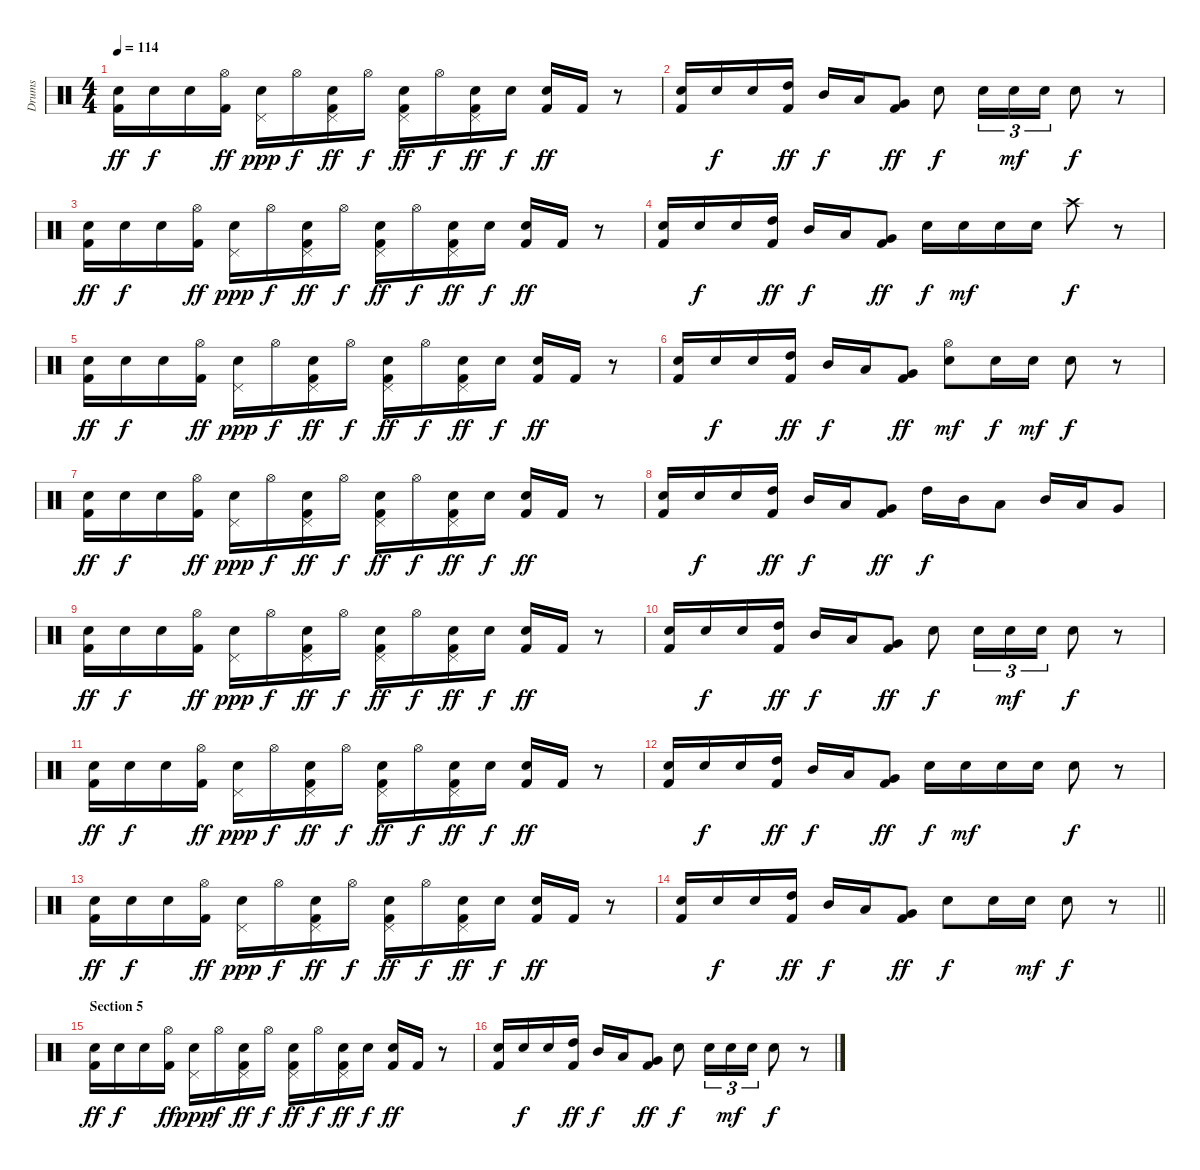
\track ("Drums" "Drums") {instrument percussion}
\staff {score}
\articulation defaults
\ts (4 4)
\tempo 114
\clef neutral
\ks c
("Snare (hit) 2" "Kick (hit) 2").16{dy ff} "Electric Snare (hit)".16{dy f} "Electric Snare (hit)".16 ("Hi-Hat (open)" "Kick (hit) 2").16{dy ff} ("Pedal Hi-Hat (hit)" "Electric Snare (hit)").16{dy ppp} "Hi-Hat (open)".16{dy f} ("Pedal Hi-Hat (hit)" "Electric Snare (hit)" "Kick (hit) 2").16{dy ff} "Hi-Hat (open)".16{dy f} ("Pedal Hi-Hat (hit)" "Electric Snare (hit)" "Kick (hit) 2").16{dy ff} "Hi-Hat (open)".16{dy f} ("Pedal Hi-Hat (hit)" "Electric Snare (hit)" "Kick (hit) 2").16{dy ff} "Snare (hit) 2".16{dy f} ("Electric Snare (hit)" "Kick (hit) 2").16{dy ff} "Kick (hit) 2".16 r.8 |
("Snare (hit) 2" "Kick (hit) 2").16 "Electric Snare (hit)".16{dy f} "Electric Snare (hit)".16 ("High Tom (hit)" "Kick (hit) 2").16{dy ff} "Mid Tom (hit)".16{dy f} "Low Tom (hit)".16 ("Very Low Tom (hit)" "Kick (hit) 2").8{dy ff} "Electric Snare (hit)".8{dy f} "Snare (hit) 2".16{tu (3 2)} "Snare (hit) 2".16{tu (3 2) dy mf} "Snare (hit) 2".16{tu (3 2)} "Electric Snare (hit)".8{dy f} r.8 |
("Snare (hit) 2" "Kick (hit) 2").16{dy ff} "Electric Snare (hit)".16{dy f} "Electric Snare (hit)".16 ("Hi-Hat (open)" "Kick (hit) 2").16{dy ff} ("Pedal Hi-Hat (hit)" "Electric Snare (hit)").16{dy ppp} "Hi-Hat (open)".16{dy f} ("Pedal Hi-Hat (hit)" "Electric Snare (hit)" "Kick (hit) 2").16{dy ff} "Hi-Hat (open)".16{dy f} ("Pedal Hi-Hat (hit)" "Electric Snare (hit)" "Kick (hit) 2").16{dy ff} "Hi-Hat (open)".16{dy f} ("Pedal Hi-Hat (hit)" "Electric Snare (hit)" "Kick (hit) 2").16{dy ff} "Snare (hit) 2".16{dy f} ("Electric Snare (hit)" "Kick (hit) 2").16{dy ff} "Kick (hit) 2".16 r.8 |
("Snare (hit) 2" "Kick (hit) 2").16 "Electric Snare (hit)".16{dy f} "Electric Snare (hit)".16 ("High Tom (hit)" "Kick (hit) 2").16{dy ff} "Mid Tom (hit)".16{dy f} "Low Tom (hit)".16 ("Very Low Tom (hit)" "Kick (hit) 2").8{dy ff} "Electric Snare (hit)".16{dy f} "Electric Snare (hit)".16{dy mf} "Electric Snare (hit)".16 "Electric Snare (hit)".16 "Crash high (hit)".8{dy f} r.8 |
("Snare (hit) 2" "Kick (hit) 2").16{dy ff} "Electric Snare (hit)".16{dy f} "Electric Snare (hit)".16 ("Hi-Hat (open)" "Kick (hit) 2").16{dy ff} ("Pedal Hi-Hat (hit)" "Electric Snare (hit)").16{dy ppp} "Hi-Hat (open)".16{dy f} ("Pedal Hi-Hat (hit)" "Electric Snare (hit)" "Kick (hit) 2").16{dy ff} "Hi-Hat (open)".16{dy f} ("Pedal Hi-Hat (hit)" "Electric Snare (hit)" "Kick (hit) 2").16{dy ff} "Hi-Hat (open)".16{dy f} ("Pedal Hi-Hat (hit)" "Electric Snare (hit)" "Kick (hit) 2").16{dy ff} "Snare (hit) 2".16{dy f} ("Electric Snare (hit)" "Kick (hit) 2").16{dy ff} "Kick (hit) 2".16 r.8 |
("Snare (hit) 2" "Kick (hit) 2").16 "Electric Snare (hit)".16{dy f} "Electric Snare (hit)".16 ("High Tom (hit)" "Kick (hit) 2").16{dy ff} "Mid Tom (hit)".16{dy f} "Low Tom (hit)".16 ("Very Low Tom (hit)" "Kick (hit) 2").8{dy ff} ("Hi-Hat (open)" "Electric Snare (hit)").8{dy mf} "Snare (hit) 2".16{dy f} "Snare (hit) 2".16{dy mf} "Electric Snare (hit)".8{dy f} r.8 |
("Snare (hit) 2" "Kick (hit) 2").16{dy ff} "Electric Snare (hit)".16{dy f} "Electric Snare (hit)".16 ("Hi-Hat (open)" "Kick (hit) 2").16{dy ff} ("Pedal Hi-Hat (hit)" "Electric Snare (hit)").16{dy ppp} "Hi-Hat (open)".16{dy f} ("Pedal Hi-Hat (hit)" "Electric Snare (hit)" "Kick (hit) 2").16{dy ff} "Hi-Hat (open)".16{dy f} ("Pedal Hi-Hat (hit)" "Electric Snare (hit)" "Kick (hit) 2").16{dy ff} "Hi-Hat (open)".16{dy f} ("Pedal Hi-Hat (hit)" "Electric Snare (hit)" "Kick (hit) 2").16{dy ff} "Snare (hit) 2".16{dy f} ("Electric Snare (hit)" "Kick (hit) 2").16{dy ff} "Kick (hit) 2".16 r.8 |
("Snare (hit) 2" "Kick (hit) 2").16 "Electric Snare (hit)".16{dy f} "Electric Snare (hit)".16 ("High Tom (hit)" "Kick (hit) 2").16{dy ff} "Mid Tom (hit)".16{dy f} "Low Tom (hit)".16 ("Very Low Tom (hit)" "Kick (hit) 2").8{dy ff} "High Tom (hit)".16{dy f} "Mid Tom (hit)".16 "Low Tom (hit)".8 "Mid Tom (hit)".16 "Low Tom (hit)".16 "Very Low Tom (hit)".8 |
("Snare (hit) 2" "Kick (hit) 2").16{dy ff} "Electric Snare (hit)".16{dy f} "Electric Snare (hit)".16 ("Hi-Hat (open)" "Kick (hit) 2").16{dy ff} ("Pedal Hi-Hat (hit)" "Electric Snare (hit)").16{dy ppp} "Hi-Hat (open)".16{dy f} ("Pedal Hi-Hat (hit)" "Electric Snare (hit)" "Kick (hit) 2").16{dy ff} "Hi-Hat (open)".16{dy f} ("Pedal Hi-Hat (hit)" "Electric Snare (hit)" "Kick (hit) 2").16{dy ff} "Hi-Hat (open)".16{dy f} ("Pedal Hi-Hat (hit)" "Electric Snare (hit)" "Kick (hit) 2").16{dy ff} "Snare (hit) 2".16{dy f} ("Electric Snare (hit)" "Kick (hit) 2").16{dy ff} "Kick (hit) 2".16 r.8 |
("Snare (hit) 2" "Kick (hit) 2").16 "Electric Snare (hit)".16{dy f} "Electric Snare (hit)".16 ("High Tom (hit)" "Kick (hit) 2").16{dy ff} "Mid Tom (hit)".16{dy f} "Low Tom (hit)".16 ("Very Low Tom (hit)" "Kick (hit) 2").8{dy ff} "Electric Snare (hit)".8{dy f} "Snare (hit) 2".16{tu (3 2)} "Snare (hit) 2".16{tu (3 2) dy mf} "Snare (hit) 2".16{tu (3 2)} "Electric Snare (hit)".8{dy f} r.8 |
("Snare (hit) 2" "Kick (hit) 2").16{dy ff} "Electric Snare (hit)".16{dy f} "Electric Snare (hit)".16 ("Hi-Hat (open)" "Kick (hit) 2").16{dy ff} ("Pedal Hi-Hat (hit)" "Electric Snare (hit)").16{dy ppp} "Hi-Hat (open)".16{dy f} ("Pedal Hi-Hat (hit)" "Electric Snare (hit)" "Kick (hit) 2").16{dy ff} "Hi-Hat (open)".16{dy f} ("Pedal Hi-Hat (hit)" "Electric Snare (hit)" "Kick (hit) 2").16{dy ff} "Hi-Hat (open)".16{dy f} ("Pedal Hi-Hat (hit)" "Electric Snare (hit)" "Kick (hit) 2").16{dy ff} "Snare (hit) 2".16{dy f} ("Electric Snare (hit)" "Kick (hit) 2").16{dy ff} "Kick (hit) 2".16 r.8 |
("Snare (hit) 2" "Kick (hit) 2").16 "Electric Snare (hit)".16{dy f} "Electric Snare (hit)".16 ("High Tom (hit)" "Kick (hit) 2").16{dy ff} "Mid Tom (hit)".16{dy f} "Low Tom (hit)".16 ("Very Low Tom (hit)" "Kick (hit) 2").8{dy ff} "Electric Snare (hit)".16{dy f} "Electric Snare (hit)".16{dy mf} "Electric Snare (hit)".16 "Electric Snare (hit)".16 "Electric Snare (hit)".8{dy f} r.8 |
("Snare (hit) 2" "Kick (hit) 2").16{dy ff} "Electric Snare (hit)".16{dy f} "Electric Snare (hit)".16 ("Hi-Hat (open)" "Kick (hit) 2").16{dy ff} ("Pedal Hi-Hat (hit)" "Electric Snare (hit)").16{dy ppp} "Hi-Hat (open)".16{dy f} ("Pedal Hi-Hat (hit)" "Electric Snare (hit)" "Kick (hit) 2").16{dy ff} "Hi-Hat (open)".16{dy f} ("Pedal Hi-Hat (hit)" "Electric Snare (hit)" "Kick (hit) 2").16{dy ff} "Hi-Hat (open)".16{dy f} ("Pedal Hi-Hat (hit)" "Electric Snare (hit)" "Kick (hit) 2").16{dy ff} "Snare (hit) 2".16{dy f} ("Electric Snare (hit)" "Kick (hit) 2").16{dy ff} "Kick (hit) 2".16 r.8 |
\barLineRight lightlight
("Snare (hit) 2" "Kick (hit) 2").16 "Electric Snare (hit)".16{dy f} "Electric Snare (hit)".16 ("High Tom (hit)" "Kick (hit) 2").16{dy ff} "Mid Tom (hit)".16{dy f} "Low Tom (hit)".16 ("Very Low Tom (hit)" "Kick (hit) 2").8{dy ff} "Electric Snare (hit)".8{dy f} "Snare (hit) 2".16 "Snare (hit) 2".16{dy mf} "Electric Snare (hit)".8{dy f} r.8 |
\section ("" "Section 5")
("Snare (hit) 2" "Kick (hit) 2").16{dy ff} "Electric Snare (hit)".16{dy f} "Electric Snare (hit)".16 ("Hi-Hat (open)" "Kick (hit) 2").16{dy ff} ("Pedal Hi-Hat (hit)" "Electric Snare (hit)").16{dy ppp} "Hi-Hat (open)".16{dy f} ("Pedal Hi-Hat (hit)" "Electric Snare (hit)" "Kick (hit) 2").16{dy ff} "Hi-Hat (open)".16{dy f} ("Pedal Hi-Hat (hit)" "Electric Snare (hit)" "Kick (hit) 2").16{dy ff} "Hi-Hat (open)".16{dy f} ("Pedal Hi-Hat (hit)" "Electric Snare (hit)" "Kick (hit) 2").16{dy ff} "Snare (hit) 2".16{dy f} ("Electric Snare (hit)" "Kick (hit) 2").16{dy ff} "Kick (hit) 2".16 r.8 |
("Snare (hit) 2" "Kick (hit) 2").16 "Electric Snare (hit)".16{dy f} "Electric Snare (hit)".16 ("High Tom (hit)" "Kick (hit) 2").16{dy ff} "Mid Tom (hit)".16{dy f} "Low Tom (hit)".16 ("Very Low Tom (hit)" "Kick (hit) 2").8{dy ff} "Electric Snare (hit)".8{dy f} "Snare (hit) 2".16{tu (3 2)} "Snare (hit) 2".16{tu (3 2) dy mf} "Snare (hit) 2".16{tu (3 2)} "Electric Snare (hit)".8{dy f} r.8
